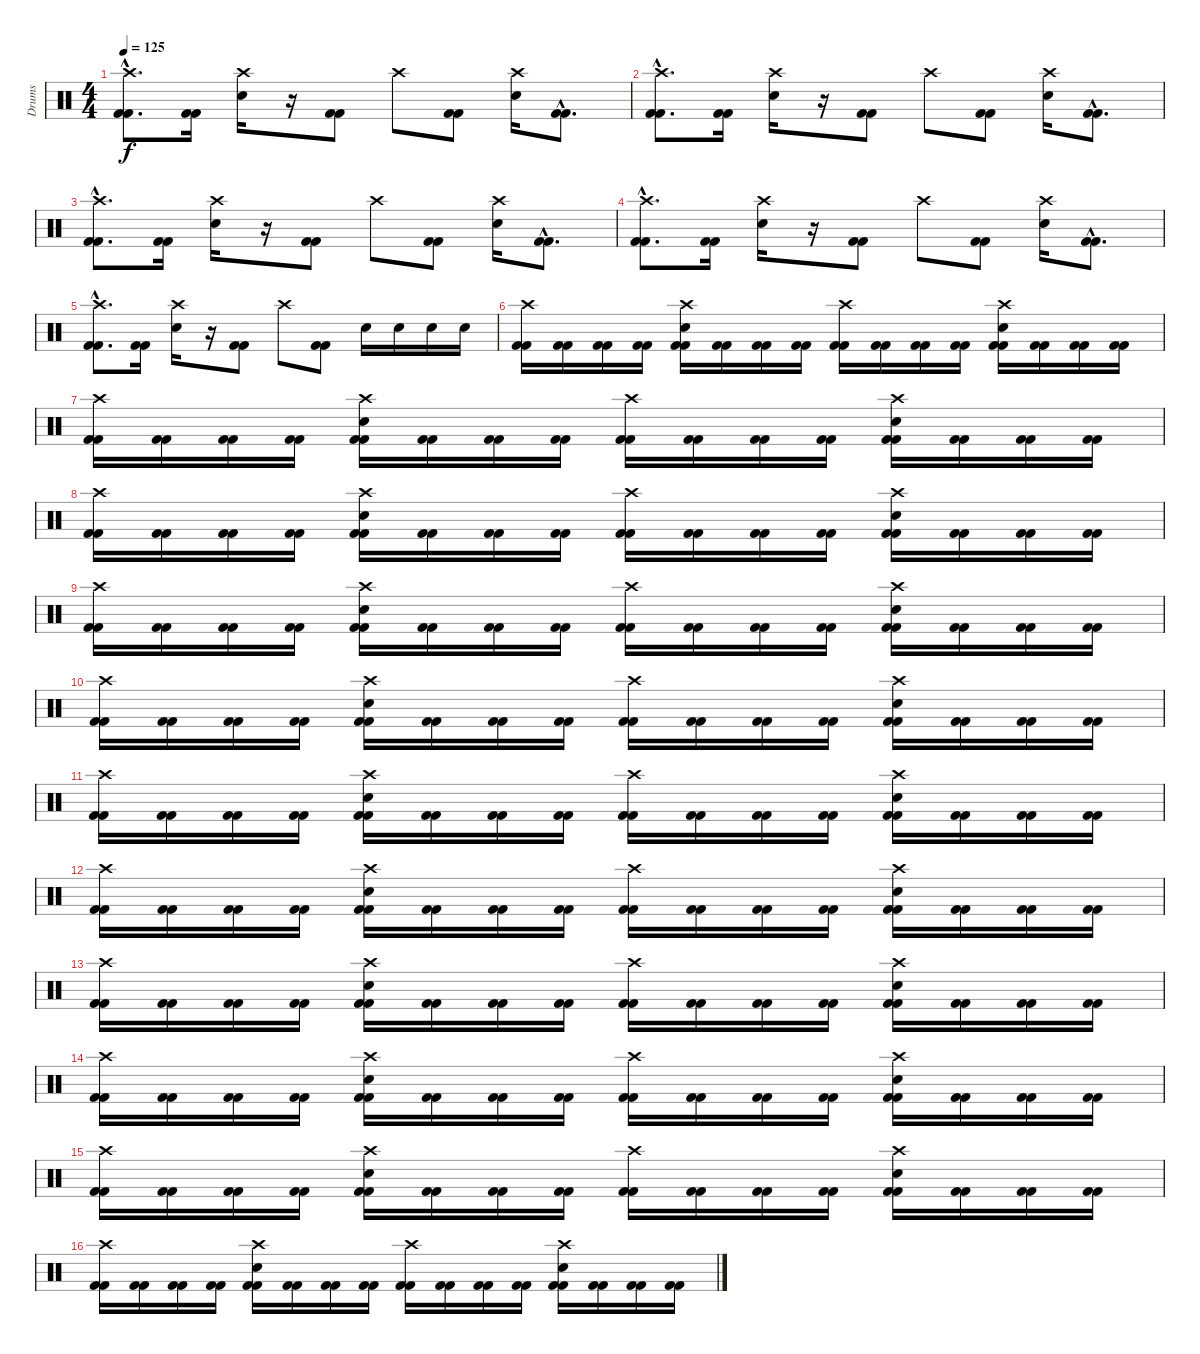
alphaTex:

\track ("Drums" "Drums") {instrument percussion}
\staff {score}
\articulation defaults
\ts (4 4)
\tempo 125
\clef neutral
\ks c
("Crash high (hit)"{hac} "Kick (hit) 2"{hac} "Kick (hit) 2"{hac}).8{d dy f} ("Kick (hit) 2" "Kick (hit) 2").16 ("Crash high (hit)" "Snare (hit) 2").16 r.16 ("Kick (hit) 2" "Kick (hit) 2").8 "Crash high (hit)".8 ("Kick (hit) 2" "Kick (hit) 2").8 ("Crash high (hit)" "Snare (hit) 2").16 ("Kick (hit) 2"{hac} "Kick (hit) 2"{hac}).8{d} |
("Crash high (hit)"{hac} "Kick (hit) 2"{hac} "Kick (hit) 2"{hac}).8{d} ("Kick (hit) 2" "Kick (hit) 2").16 ("Crash high (hit)" "Snare (hit) 2").16 r.16 ("Kick (hit) 2" "Kick (hit) 2").8 "Crash high (hit)".8 ("Kick (hit) 2" "Kick (hit) 2").8 ("Crash high (hit)" "Snare (hit) 2").16 ("Kick (hit) 2"{hac} "Kick (hit) 2"{hac}).8{d} |
("Crash high (hit)"{hac} "Kick (hit) 2"{hac} "Kick (hit) 2"{hac}).8{d} ("Kick (hit) 2" "Kick (hit) 2").16 ("Crash high (hit)" "Snare (hit) 2").16 r.16 ("Kick (hit) 2" "Kick (hit) 2").8 "Crash high (hit)".8 ("Kick (hit) 2" "Kick (hit) 2").8 ("Crash high (hit)" "Snare (hit) 2").16 ("Kick (hit) 2"{hac} "Kick (hit) 2"{hac}).8{d} |
("Crash high (hit)"{hac} "Kick (hit) 2"{hac} "Kick (hit) 2"{hac}).8{d} ("Kick (hit) 2" "Kick (hit) 2").16 ("Crash high (hit)" "Snare (hit) 2").16 r.16 ("Kick (hit) 2" "Kick (hit) 2").8 "Crash high (hit)".8 ("Kick (hit) 2" "Kick (hit) 2").8 ("Crash high (hit)" "Snare (hit) 2").16 ("Kick (hit) 2"{hac} "Kick (hit) 2"{hac}).8{d} |
("Crash high (hit)"{hac} "Kick (hit) 2"{hac} "Kick (hit) 2"{hac}).8{d} ("Kick (hit) 2" "Kick (hit) 2").16 ("Crash high (hit)" "Snare (hit) 2").16 r.16 ("Kick (hit) 2" "Kick (hit) 2").8 "Crash high (hit)".8 ("Kick (hit) 2" "Kick (hit) 2").8 "Snare (hit) 2".16 "Snare (hit) 2".16 "Snare (hit) 2".16 "Snare (hit) 2".16 |
("Crash high (hit)" "Kick (hit) 2" "Kick (hit) 2").16 ("Kick (hit) 2" "Kick (hit) 2").16 ("Kick (hit) 2" "Kick (hit) 2").16 ("Kick (hit) 2" "Kick (hit) 2").16 ("Crash high (hit)" "Snare (hit) 2" "Kick (hit) 2" "Kick (hit) 2").16 ("Kick (hit) 2" "Kick (hit) 2").16 ("Kick (hit) 2" "Kick (hit) 2").16 ("Kick (hit) 2" "Kick (hit) 2").16 ("Crash high (hit)" "Kick (hit) 2" "Kick (hit) 2").16 ("Kick (hit) 2" "Kick (hit) 2").16 ("Kick (hit) 2" "Kick (hit) 2").16 ("Kick (hit) 2" "Kick (hit) 2").16 ("Crash high (hit)" "Snare (hit) 2" "Kick (hit) 2" "Kick (hit) 2").16 ("Kick (hit) 2" "Kick (hit) 2").16 ("Kick (hit) 2" "Kick (hit) 2").16 ("Kick (hit) 2" "Kick (hit) 2").16 |
("Crash high (hit)" "Kick (hit) 2" "Kick (hit) 2").16 ("Kick (hit) 2" "Kick (hit) 2").16 ("Kick (hit) 2" "Kick (hit) 2").16 ("Kick (hit) 2" "Kick (hit) 2").16 ("Crash high (hit)" "Snare (hit) 2" "Kick (hit) 2" "Kick (hit) 2").16 ("Kick (hit) 2" "Kick (hit) 2").16 ("Kick (hit) 2" "Kick (hit) 2").16 ("Kick (hit) 2" "Kick (hit) 2").16 ("Crash high (hit)" "Kick (hit) 2" "Kick (hit) 2").16 ("Kick (hit) 2" "Kick (hit) 2").16 ("Kick (hit) 2" "Kick (hit) 2").16 ("Kick (hit) 2" "Kick (hit) 2").16 ("Crash high (hit)" "Snare (hit) 2" "Kick (hit) 2" "Kick (hit) 2").16 ("Kick (hit) 2" "Kick (hit) 2").16 ("Kick (hit) 2" "Kick (hit) 2").16 ("Kick (hit) 2" "Kick (hit) 2").16 |
("Crash high (hit)" "Kick (hit) 2" "Kick (hit) 2").16 ("Kick (hit) 2" "Kick (hit) 2").16 ("Kick (hit) 2" "Kick (hit) 2").16 ("Kick (hit) 2" "Kick (hit) 2").16 ("Crash high (hit)" "Snare (hit) 2" "Kick (hit) 2" "Kick (hit) 2").16 ("Kick (hit) 2" "Kick (hit) 2").16 ("Kick (hit) 2" "Kick (hit) 2").16 ("Kick (hit) 2" "Kick (hit) 2").16 ("Crash high (hit)" "Kick (hit) 2" "Kick (hit) 2").16 ("Kick (hit) 2" "Kick (hit) 2").16 ("Kick (hit) 2" "Kick (hit) 2").16 ("Kick (hit) 2" "Kick (hit) 2").16 ("Crash high (hit)" "Snare (hit) 2" "Kick (hit) 2" "Kick (hit) 2").16 ("Kick (hit) 2" "Kick (hit) 2").16 ("Kick (hit) 2" "Kick (hit) 2").16 ("Kick (hit) 2" "Kick (hit) 2").16 |
("Crash high (hit)" "Kick (hit) 2" "Kick (hit) 2").16 ("Kick (hit) 2" "Kick (hit) 2").16 ("Kick (hit) 2" "Kick (hit) 2").16 ("Kick (hit) 2" "Kick (hit) 2").16 ("Crash high (hit)" "Snare (hit) 2" "Kick (hit) 2" "Kick (hit) 2").16 ("Kick (hit) 2" "Kick (hit) 2").16 ("Kick (hit) 2" "Kick (hit) 2").16 ("Kick (hit) 2" "Kick (hit) 2").16 ("Crash high (hit)" "Kick (hit) 2" "Kick (hit) 2").16 ("Kick (hit) 2" "Kick (hit) 2").16 ("Kick (hit) 2" "Kick (hit) 2").16 ("Kick (hit) 2" "Kick (hit) 2").16 ("Crash high (hit)" "Snare (hit) 2" "Kick (hit) 2" "Kick (hit) 2").16 ("Kick (hit) 2" "Kick (hit) 2").16 ("Kick (hit) 2" "Kick (hit) 2").16 ("Kick (hit) 2" "Kick (hit) 2").16 |
("Crash high (hit)" "Kick (hit) 2" "Kick (hit) 2").16 ("Kick (hit) 2" "Kick (hit) 2").16 ("Kick (hit) 2" "Kick (hit) 2").16 ("Kick (hit) 2" "Kick (hit) 2").16 ("Crash high (hit)" "Snare (hit) 2" "Kick (hit) 2" "Kick (hit) 2").16 ("Kick (hit) 2" "Kick (hit) 2").16 ("Kick (hit) 2" "Kick (hit) 2").16 ("Kick (hit) 2" "Kick (hit) 2").16 ("Crash high (hit)" "Kick (hit) 2" "Kick (hit) 2").16 ("Kick (hit) 2" "Kick (hit) 2").16 ("Kick (hit) 2" "Kick (hit) 2").16 ("Kick (hit) 2" "Kick (hit) 2").16 ("Crash high (hit)" "Snare (hit) 2" "Kick (hit) 2" "Kick (hit) 2").16 ("Kick (hit) 2" "Kick (hit) 2").16 ("Kick (hit) 2" "Kick (hit) 2").16 ("Kick (hit) 2" "Kick (hit) 2").16 |
("Crash high (hit)" "Kick (hit) 2" "Kick (hit) 2").16 ("Kick (hit) 2" "Kick (hit) 2").16 ("Kick (hit) 2" "Kick (hit) 2").16 ("Kick (hit) 2" "Kick (hit) 2").16 ("Crash high (hit)" "Snare (hit) 2" "Kick (hit) 2" "Kick (hit) 2").16 ("Kick (hit) 2" "Kick (hit) 2").16 ("Kick (hit) 2" "Kick (hit) 2").16 ("Kick (hit) 2" "Kick (hit) 2").16 ("Crash high (hit)" "Kick (hit) 2" "Kick (hit) 2").16 ("Kick (hit) 2" "Kick (hit) 2").16 ("Kick (hit) 2" "Kick (hit) 2").16 ("Kick (hit) 2" "Kick (hit) 2").16 ("Crash high (hit)" "Snare (hit) 2" "Kick (hit) 2" "Kick (hit) 2").16 ("Kick (hit) 2" "Kick (hit) 2").16 ("Kick (hit) 2" "Kick (hit) 2").16 ("Kick (hit) 2" "Kick (hit) 2").16 |
("Crash high (hit)" "Kick (hit) 2" "Kick (hit) 2").16 ("Kick (hit) 2" "Kick (hit) 2").16 ("Kick (hit) 2" "Kick (hit) 2").16 ("Kick (hit) 2" "Kick (hit) 2").16 ("Crash high (hit)" "Snare (hit) 2" "Kick (hit) 2" "Kick (hit) 2").16 ("Kick (hit) 2" "Kick (hit) 2").16 ("Kick (hit) 2" "Kick (hit) 2").16 ("Kick (hit) 2" "Kick (hit) 2").16 ("Crash high (hit)" "Kick (hit) 2" "Kick (hit) 2").16 ("Kick (hit) 2" "Kick (hit) 2").16 ("Kick (hit) 2" "Kick (hit) 2").16 ("Kick (hit) 2" "Kick (hit) 2").16 ("Crash high (hit)" "Snare (hit) 2" "Kick (hit) 2" "Kick (hit) 2").16 ("Kick (hit) 2" "Kick (hit) 2").16 ("Kick (hit) 2" "Kick (hit) 2").16 ("Kick (hit) 2" "Kick (hit) 2").16 |
("Crash high (hit)" "Kick (hit) 2" "Kick (hit) 2").16 ("Kick (hit) 2" "Kick (hit) 2").16 ("Kick (hit) 2" "Kick (hit) 2").16 ("Kick (hit) 2" "Kick (hit) 2").16 ("Crash high (hit)" "Snare (hit) 2" "Kick (hit) 2" "Kick (hit) 2").16 ("Kick (hit) 2" "Kick (hit) 2").16 ("Kick (hit) 2" "Kick (hit) 2").16 ("Kick (hit) 2" "Kick (hit) 2").16 ("Crash high (hit)" "Kick (hit) 2" "Kick (hit) 2").16 ("Kick (hit) 2" "Kick (hit) 2").16 ("Kick (hit) 2" "Kick (hit) 2").16 ("Kick (hit) 2" "Kick (hit) 2").16 ("Crash high (hit)" "Snare (hit) 2" "Kick (hit) 2" "Kick (hit) 2").16 ("Kick (hit) 2" "Kick (hit) 2").16 ("Kick (hit) 2" "Kick (hit) 2").16 ("Kick (hit) 2" "Kick (hit) 2").16 |
("Crash high (hit)" "Kick (hit) 2" "Kick (hit) 2").16 ("Kick (hit) 2" "Kick (hit) 2").16 ("Kick (hit) 2" "Kick (hit) 2").16 ("Kick (hit) 2" "Kick (hit) 2").16 ("Crash high (hit)" "Snare (hit) 2" "Kick (hit) 2" "Kick (hit) 2").16 ("Kick (hit) 2" "Kick (hit) 2").16 ("Kick (hit) 2" "Kick (hit) 2").16 ("Kick (hit) 2" "Kick (hit) 2").16 ("Crash high (hit)" "Kick (hit) 2" "Kick (hit) 2").16 ("Kick (hit) 2" "Kick (hit) 2").16 ("Kick (hit) 2" "Kick (hit) 2").16 ("Kick (hit) 2" "Kick (hit) 2").16 ("Crash high (hit)" "Snare (hit) 2" "Kick (hit) 2" "Kick (hit) 2").16 ("Kick (hit) 2" "Kick (hit) 2").16 ("Kick (hit) 2" "Kick (hit) 2").16 ("Kick (hit) 2" "Kick (hit) 2").16 |
("Crash high (hit)" "Kick (hit) 2" "Kick (hit) 2").16 ("Kick (hit) 2" "Kick (hit) 2").16 ("Kick (hit) 2" "Kick (hit) 2").16 ("Kick (hit) 2" "Kick (hit) 2").16 ("Crash high (hit)" "Snare (hit) 2" "Kick (hit) 2" "Kick (hit) 2").16 ("Kick (hit) 2" "Kick (hit) 2").16 ("Kick (hit) 2" "Kick (hit) 2").16 ("Kick (hit) 2" "Kick (hit) 2").16 ("Crash high (hit)" "Kick (hit) 2" "Kick (hit) 2").16 ("Kick (hit) 2" "Kick (hit) 2").16 ("Kick (hit) 2" "Kick (hit) 2").16 ("Kick (hit) 2" "Kick (hit) 2").16 ("Crash high (hit)" "Snare (hit) 2" "Kick (hit) 2" "Kick (hit) 2").16 ("Kick (hit) 2" "Kick (hit) 2").16 ("Kick (hit) 2" "Kick (hit) 2").16 ("Kick (hit) 2" "Kick (hit) 2").16 |
("Crash high (hit)" "Kick (hit) 2" "Kick (hit) 2").16 ("Kick (hit) 2" "Kick (hit) 2").16 ("Kick (hit) 2" "Kick (hit) 2").16 ("Kick (hit) 2" "Kick (hit) 2").16 ("Crash high (hit)" "Snare (hit) 2" "Kick (hit) 2" "Kick (hit) 2").16 ("Kick (hit) 2" "Kick (hit) 2").16 ("Kick (hit) 2" "Kick (hit) 2").16 ("Kick (hit) 2" "Kick (hit) 2").16 ("Crash high (hit)" "Kick (hit) 2" "Kick (hit) 2").16 ("Kick (hit) 2" "Kick (hit) 2").16 ("Kick (hit) 2" "Kick (hit) 2").16 ("Kick (hit) 2" "Kick (hit) 2").16 ("Crash high (hit)" "Snare (hit) 2" "Kick (hit) 2" "Kick (hit) 2").16 ("Kick (hit) 2" "Kick (hit) 2").16 ("Kick (hit) 2" "Kick (hit) 2").16 ("Kick (hit) 2" "Kick (hit) 2").16
